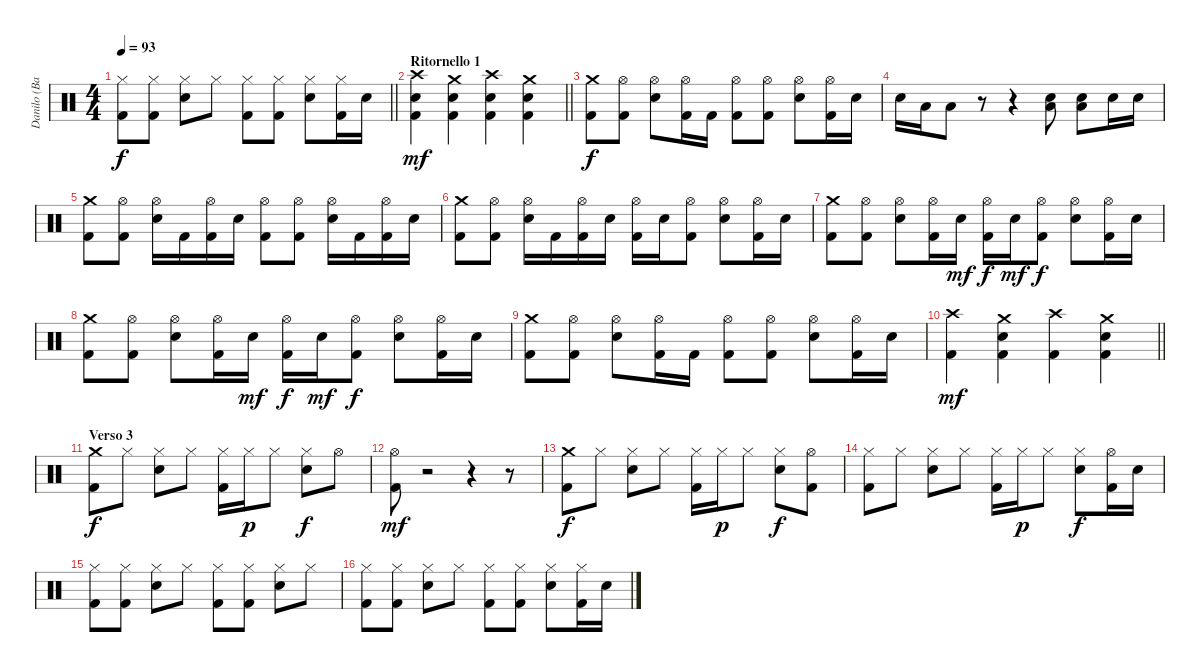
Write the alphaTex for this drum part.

\track ("Danilo (Batteria)" "Danilo (Ba") {instrument percussion}
\staff {score}
\articulation defaults
\ts (4 4)
\tempo 93
\clef neutral
\barLineRight lightlight
\ks c
("Hi-Hat (closed)" "Kick (hit) 2").8{dy f} ("Hi-Hat (closed)" "Kick (hit) 2").8 ("Hi-Hat (closed)" "Electric Snare (hit)").8 "Hi-Hat (closed)".8 ("Hi-Hat (closed)" "Kick (hit) 2").8 ("Hi-Hat (closed)" "Kick (hit) 2").8 ("Hi-Hat (closed)" "Electric Snare (hit)").8 ("Hi-Hat (closed)" "Kick (hit) 2").16 "Electric Snare (hit)".16 |
\section ("" "Ritornello 1")
\barLineRight lightlight
("Crash high (hit)" "Electric Snare (hit)" "Kick (hit) 2").4{dy mf} ("Crash medium (hit)" "Electric Snare (hit)" "Kick (hit) 2").4 ("Crash high (hit)" "Electric Snare (hit)" "Kick (hit) 2").4 ("Crash medium (hit)" "Electric Snare (hit)" "Kick (hit) 2").4 |
("Crash medium (hit)" "Kick (hit) 2").8{dy f} ("Hi-Hat (open)" "Kick (hit) 2").8 ("Hi-Hat (open)" "Electric Snare (hit)").8 ("Hi-Hat (open)" "Kick (hit) 2").16 "Kick (hit) 2".16 ("Hi-Hat (open)" "Kick (hit) 2").8 ("Hi-Hat (open)" "Kick (hit) 2").8 ("Hi-Hat (open)" "Electric Snare (hit)").8 ("Hi-Hat (open)" "Kick (hit) 2").16 "Electric Snare (hit)".16 |
"Electric Snare (hit)".16 "Low Tom (hit)".16 "Low Tom (hit)".8 r.8 r.4 ("Low Floor Tom (hit)" "Electric Snare (hit)").8 ("Low Floor Tom (hit)" "Electric Snare (hit)").8 "Electric Snare (hit)".16 "Electric Snare (hit)".16 |
("Crash medium (hit)" "Kick (hit) 2").8 ("Hi-Hat (open)" "Kick (hit) 2").8 ("Hi-Hat (open)" "Electric Snare (hit)").16 "Kick (hit) 2".16 ("Hi-Hat (open)" "Kick (hit) 2").16 "Electric Snare (hit)".16 ("Hi-Hat (open)" "Kick (hit) 2").8 ("Hi-Hat (open)" "Kick (hit) 2").8 ("Hi-Hat (open)" "Electric Snare (hit)").16 "Kick (hit) 2".16 ("Hi-Hat (open)" "Kick (hit) 2").16 "Electric Snare (hit)".16 |
("Crash medium (hit)" "Kick (hit) 2").8 ("Hi-Hat (open)" "Kick (hit) 2").8 ("Hi-Hat (open)" "Electric Snare (hit)").16 "Kick (hit) 2".16 ("Hi-Hat (open)" "Kick (hit) 2").16 "Electric Snare (hit)".16 ("Hi-Hat (open)" "Kick (hit) 2").16 "Electric Snare (hit)".16 ("Hi-Hat (open)" "Kick (hit) 2").8 ("Hi-Hat (open)" "Electric Snare (hit)").8 ("Hi-Hat (open)" "Kick (hit) 2").16 "Electric Snare (hit)".16 |
("Crash medium (hit)" "Kick (hit) 2").8 ("Hi-Hat (open)" "Kick (hit) 2").8 ("Hi-Hat (open)" "Electric Snare (hit)").8 ("Hi-Hat (open)" "Kick (hit) 2").16 "Electric Snare (hit)".16{dy mf} ("Hi-Hat (open)" "Kick (hit) 2").16{dy f} "Electric Snare (hit)".16{dy mf} ("Hi-Hat (open)" "Kick (hit) 2").8{dy f} ("Hi-Hat (open)" "Electric Snare (hit)").8 ("Hi-Hat (open)" "Kick (hit) 2").16 "Electric Snare (hit)".16 |
("Crash medium (hit)" "Kick (hit) 2").8 ("Hi-Hat (open)" "Kick (hit) 2").8 ("Hi-Hat (open)" "Electric Snare (hit)").8 ("Hi-Hat (open)" "Kick (hit) 2").16 "Electric Snare (hit)".16{dy mf} ("Hi-Hat (open)" "Kick (hit) 2").16{dy f} "Electric Snare (hit)".16{dy mf} ("Hi-Hat (open)" "Kick (hit) 2").8{dy f} ("Hi-Hat (open)" "Electric Snare (hit)").8 ("Hi-Hat (open)" "Kick (hit) 2").16 "Electric Snare (hit)".16 |
("Crash medium (hit)" "Kick (hit) 2").8 ("Hi-Hat (open)" "Kick (hit) 2").8 ("Hi-Hat (open)" "Electric Snare (hit)").8 ("Hi-Hat (open)" "Kick (hit) 2").16 "Kick (hit) 2".16 ("Hi-Hat (open)" "Kick (hit) 2").8 ("Hi-Hat (open)" "Kick (hit) 2").8 ("Hi-Hat (open)" "Electric Snare (hit)").8 ("Hi-Hat (open)" "Kick (hit) 2").16 "Electric Snare (hit)".16 |
\barLineRight lightlight
("Crash high (hit)" "Kick (hit) 2").4{dy mf} ("Crash medium (hit)" "Electric Snare (hit)" "Kick (hit) 2").4 ("Crash high (hit)" "Kick (hit) 2").4 ("Crash medium (hit)" "Electric Snare (hit)" "Kick (hit) 2").4 |
\section ("" "Verso 3")
("Crash medium (hit)" "Kick (hit) 2").8{dy f} "Hi-Hat (closed)".8 ("Hi-Hat (closed)" "Electric Snare (hit)").8 "Hi-Hat (closed)".8 ("Hi-Hat (closed)" "Kick (hit) 2").16 "Hi-Hat (closed)".16{dy p} "Hi-Hat (closed)".8 ("Hi-Hat (closed)" "Electric Snare (hit)").8{dy f} "Hi-Hat (open)".8 |
("Hi-Hat (open)" "Kick (hit) 2").8{dy mf} r.2 r.4 r.8 |
("Crash medium (hit)" "Kick (hit) 2").8{dy f} "Hi-Hat (closed)".8 ("Hi-Hat (closed)" "Electric Snare (hit)").8 "Hi-Hat (closed)".8 ("Hi-Hat (closed)" "Kick (hit) 2").16 "Hi-Hat (closed)".16{dy p} "Hi-Hat (closed)".8 ("Hi-Hat (closed)" "Electric Snare (hit)").8{dy f} ("Hi-Hat (open)" "Kick (hit) 2").8 |
("Hi-Hat (closed)" "Kick (hit) 2").8 "Hi-Hat (closed)".8 ("Hi-Hat (closed)" "Electric Snare (hit)").8 "Hi-Hat (closed)".8 ("Hi-Hat (closed)" "Kick (hit) 2").16 "Hi-Hat (closed)".16{dy p} "Hi-Hat (closed)".8 ("Hi-Hat (closed)" "Electric Snare (hit)").8{dy f} ("Hi-Hat (open)" "Kick (hit) 2").16 "Electric Snare (hit)".16 |
("Hi-Hat (closed)" "Kick (hit) 2").8 ("Hi-Hat (closed)" "Kick (hit) 2").8 ("Hi-Hat (closed)" "Electric Snare (hit)").8 "Hi-Hat (closed)".8 ("Hi-Hat (closed)" "Kick (hit) 2").8 ("Hi-Hat (closed)" "Kick (hit) 2").8 ("Hi-Hat (closed)" "Electric Snare (hit)").8 "Hi-Hat (closed)".8 |
("Hi-Hat (closed)" "Kick (hit) 2").8 ("Hi-Hat (closed)" "Kick (hit) 2").8 ("Hi-Hat (closed)" "Electric Snare (hit)").8 "Hi-Hat (closed)".8 ("Hi-Hat (closed)" "Kick (hit) 2").8 ("Hi-Hat (closed)" "Kick (hit) 2").8 ("Hi-Hat (closed)" "Electric Snare (hit)").8 ("Hi-Hat (closed)" "Kick (hit) 2").16 "Electric Snare (hit)".16
